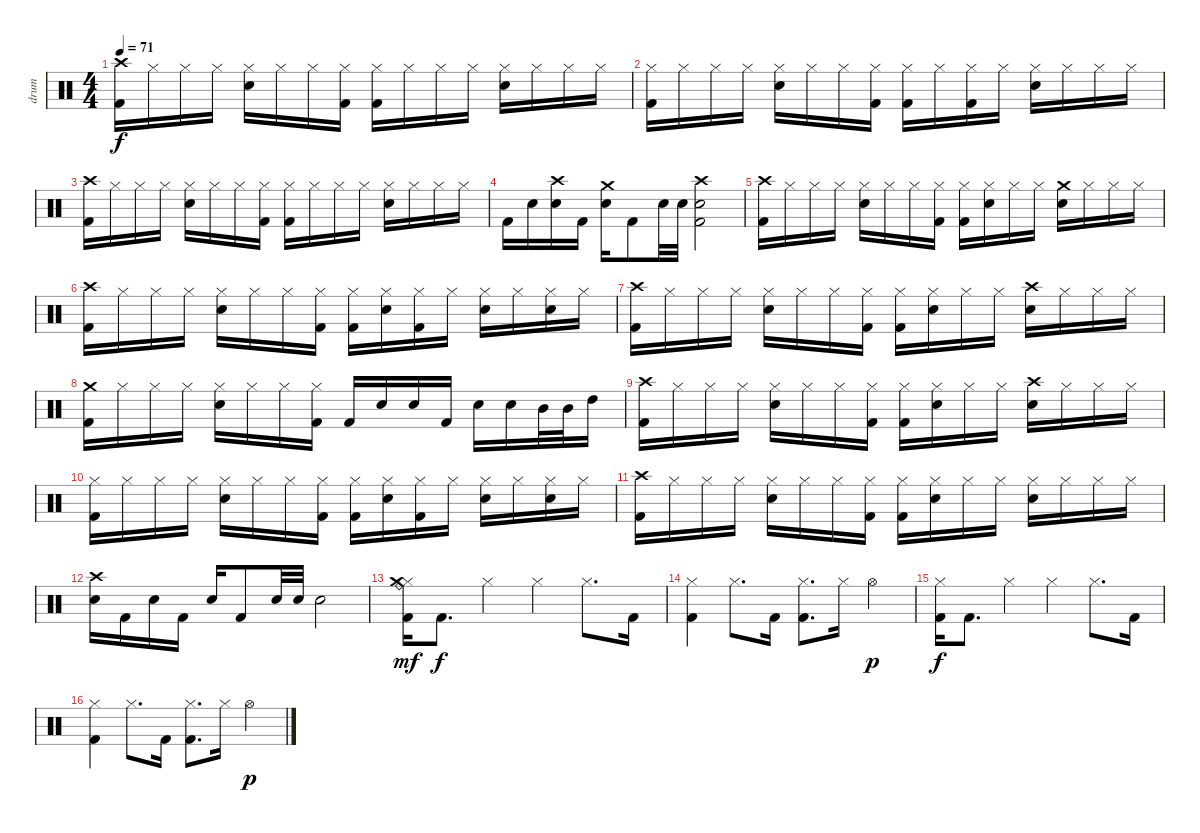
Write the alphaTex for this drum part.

\track ("drum" "drum") {instrument percussion}
\staff {score}
\articulation defaults
\ts (4 4)
\tempo 71
\clef neutral
\ks c
("Crash high (hit)" "Kick (hit) 2").16{dy f} "Hi-Hat (closed)".16 "Hi-Hat (closed)".16 "Hi-Hat (closed)".16 ("Hi-Hat (closed)" "Snare (hit) 2").16 "Hi-Hat (closed)".16 "Hi-Hat (closed)".16 ("Hi-Hat (closed)" "Kick (hit) 2").16 ("Hi-Hat (closed)" "Kick (hit) 2").16 "Hi-Hat (closed)".16 "Hi-Hat (closed)".16 "Hi-Hat (closed)".16 ("Hi-Hat (closed)" "Snare (hit) 2").16 "Hi-Hat (closed)".16 "Hi-Hat (closed)".16 "Hi-Hat (closed)".16 |
("Hi-Hat (closed)" "Kick (hit) 2").16 "Hi-Hat (closed)".16 "Hi-Hat (closed)".16 "Hi-Hat (closed)".16 ("Hi-Hat (closed)" "Snare (hit) 2").16 "Hi-Hat (closed)".16 "Hi-Hat (closed)".16 ("Hi-Hat (closed)" "Kick (hit) 2").16 ("Hi-Hat (closed)" "Kick (hit) 2").16 "Hi-Hat (closed)".16 ("Hi-Hat (closed)" "Kick (hit) 2").16 "Hi-Hat (closed)".16 ("Hi-Hat (closed)" "Snare (hit) 2").16 "Hi-Hat (closed)".16 "Hi-Hat (closed)".16 "Hi-Hat (closed)".16 |
("Crash high (hit)" "Kick (hit) 2").16 "Hi-Hat (closed)".16 "Hi-Hat (closed)".16 "Hi-Hat (closed)".16 ("Hi-Hat (closed)" "Snare (hit) 2").16 "Hi-Hat (closed)".16 "Hi-Hat (closed)".16 ("Hi-Hat (closed)" "Kick (hit) 2").16 ("Hi-Hat (closed)" "Kick (hit) 2").16 "Hi-Hat (closed)".16 "Hi-Hat (closed)".16 "Hi-Hat (closed)".16 ("Hi-Hat (closed)" "Snare (hit) 2").16 "Hi-Hat (closed)".16 "Hi-Hat (closed)".16 "Hi-Hat (closed)".16 |
"Kick (hit) 2".16 "Snare (hit) 2".16 ("Crash high (hit)" "Snare (hit) 2").16 "Kick (hit) 2".16 ("Crash medium (hit)" "Snare (hit) 2").16 "Kick (hit) 2".8 "Snare (hit) 2".32 "Snare (hit) 2".32 ("Crash high (hit)" "Snare (hit) 2" "Kick (hit) 2").2 |
("Crash high (hit)" "Kick (hit) 2").16 "Hi-Hat (closed)".16 "Hi-Hat (closed)".16 "Hi-Hat (closed)".16 ("Hi-Hat (closed)" "Snare (hit) 2").16 "Hi-Hat (closed)".16 "Hi-Hat (closed)".16 ("Hi-Hat (closed)" "Kick (hit) 2").16 ("Hi-Hat (closed)" "Kick (hit) 2").16 ("Hi-Hat (closed)" "Snare (hit) 2").16 "Hi-Hat (closed)".16 "Hi-Hat (closed)".16 ("Crash medium (hit)" "Snare (hit) 2").16 "Hi-Hat (closed)".16 "Hi-Hat (closed)".16 "Hi-Hat (closed)".16 |
("Crash high (hit)" "Kick (hit) 2").16 "Hi-Hat (closed)".16 "Hi-Hat (closed)".16 "Hi-Hat (closed)".16 ("Hi-Hat (closed)" "Snare (hit) 2").16 "Hi-Hat (closed)".16 "Hi-Hat (closed)".16 ("Hi-Hat (closed)" "Kick (hit) 2").16 ("Hi-Hat (closed)" "Kick (hit) 2").16 ("Hi-Hat (closed)" "Snare (hit) 2").16 ("Hi-Hat (closed)" "Kick (hit) 2").16 "Hi-Hat (closed)".16 ("Hi-Hat (closed)" "Snare (hit) 2").16 "Hi-Hat (closed)".16 ("Hi-Hat (closed)" "Snare (hit) 2").16 "Hi-Hat (closed)".16 |
("Crash high (hit)" "Kick (hit) 2").16 "Hi-Hat (closed)".16 "Hi-Hat (closed)".16 "Hi-Hat (closed)".16 ("Hi-Hat (closed)" "Snare (hit) 2").16 "Hi-Hat (closed)".16 "Hi-Hat (closed)".16 ("Hi-Hat (closed)" "Kick (hit) 2").16 ("Hi-Hat (closed)" "Kick (hit) 2").16 ("Hi-Hat (closed)" "Snare (hit) 2").16 "Hi-Hat (closed)".16 "Hi-Hat (closed)".16 ("Crash high (hit)" "Snare (hit) 2").16 "Hi-Hat (closed)".16 "Hi-Hat (closed)".16 "Hi-Hat (closed)".16 |
("Crash medium (hit)" "Kick (hit) 2").16 "Hi-Hat (closed)".16 "Hi-Hat (closed)".16 "Hi-Hat (closed)".16 ("Hi-Hat (closed)" "Snare (hit) 2").16 "Hi-Hat (closed)".16 "Hi-Hat (closed)".16 ("Hi-Hat (closed)" "Kick (hit) 2").16 "Kick (hit) 2".16 "Snare (hit) 2".16 "Snare (hit) 2".16 "Kick (hit) 2".16 "Snare (hit) 2".16 "Snare (hit) 2".16 "Mid Tom (hit)".32 "Mid Tom (hit)".32 "High Tom (hit)".16 |
("Crash high (hit)" "Kick (hit) 2").16 "Hi-Hat (closed)".16 "Hi-Hat (closed)".16 "Hi-Hat (closed)".16 ("Hi-Hat (closed)" "Snare (hit) 2").16 "Hi-Hat (closed)".16 "Hi-Hat (closed)".16 ("Hi-Hat (closed)" "Kick (hit) 2").16 ("Hi-Hat (closed)" "Kick (hit) 2").16 ("Hi-Hat (closed)" "Snare (hit) 2").16 "Hi-Hat (closed)".16 "Hi-Hat (closed)".16 ("Crash high (hit)" "Snare (hit) 2").16 "Hi-Hat (closed)".16 "Hi-Hat (closed)".16 "Hi-Hat (closed)".16 |
("Hi-Hat (closed)" "Kick (hit) 2").16 "Hi-Hat (closed)".16 "Hi-Hat (closed)".16 "Hi-Hat (closed)".16 ("Hi-Hat (closed)" "Snare (hit) 2").16 "Hi-Hat (closed)".16 "Hi-Hat (closed)".16 ("Hi-Hat (closed)" "Kick (hit) 2").16 ("Hi-Hat (closed)" "Kick (hit) 2").16 ("Hi-Hat (closed)" "Snare (hit) 2").16 ("Hi-Hat (closed)" "Kick (hit) 2").16 "Hi-Hat (closed)".16 ("Hi-Hat (closed)" "Snare (hit) 2").16 "Hi-Hat (closed)".16 ("Hi-Hat (closed)" "Snare (hit) 2").16 "Hi-Hat (closed)".16 |
("Crash high (hit)" "Kick (hit) 2").16 "Hi-Hat (closed)".16 "Hi-Hat (closed)".16 "Hi-Hat (closed)".16 ("Hi-Hat (closed)" "Snare (hit) 2").16 "Hi-Hat (closed)".16 "Hi-Hat (closed)".16 ("Hi-Hat (closed)" "Kick (hit) 2").16 ("Hi-Hat (closed)" "Kick (hit) 2").16 ("Hi-Hat (closed)" "Snare (hit) 2").16 "Hi-Hat (closed)".16 "Hi-Hat (closed)".16 ("Hi-Hat (closed)" "Snare (hit) 2").16 "Hi-Hat (closed)".16 "Hi-Hat (closed)".16 "Hi-Hat (closed)".16 |
("Crash high (hit)" "Snare (hit) 2").16 "Kick (hit) 2".16 "Snare (hit) 2".16 "Kick (hit) 2".16 "Snare (hit) 2".16 "Kick (hit) 2".8 "Snare (hit) 2".32 "Snare (hit) 2".32 "Snare (hit) 2".2 |
("Hi-Hat (closed)" "Ride (bell)" "Crash medium (hit)" "Kick (hit) 2").16{dy mf} "Kick (hit) 2".8{d dy f} "Hi-Hat (closed)".4 "Hi-Hat (closed)".4 "Hi-Hat (closed)".8{d} "Kick (hit) 2".16 |
("Hi-Hat (closed)" "Kick (hit) 2").4 "Hi-Hat (closed)".8{d} "Kick (hit) 2".16 ("Hi-Hat (closed)" "Kick (hit) 2").8{d} "Hi-Hat (closed)".16 "Hi-Hat (open)".4{dy p} |
("Hi-Hat (closed)" "Kick (hit) 2").16{dy f} "Kick (hit) 2".8{d} "Hi-Hat (closed)".4 "Hi-Hat (closed)".4 "Hi-Hat (closed)".8{d} "Kick (hit) 2".16 |
("Hi-Hat (closed)" "Kick (hit) 2").4 "Hi-Hat (closed)".8{d} "Kick (hit) 2".16 ("Hi-Hat (closed)" "Kick (hit) 2").8{d} "Hi-Hat (closed)".16 "Hi-Hat (open)".4{dy p}
